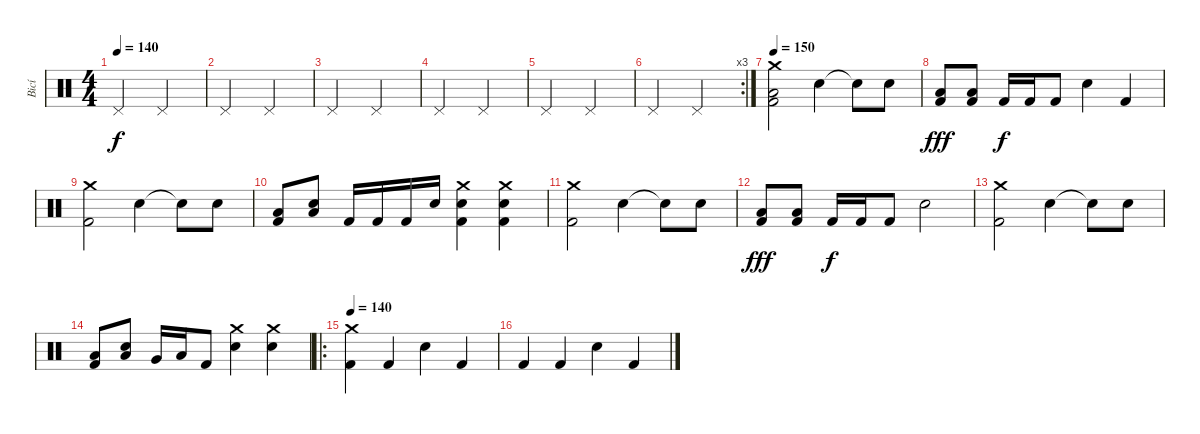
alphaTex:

\track ("Bicí" "Bicí") {instrument percussion}
\staff {score}
\articulation defaults
\ts (4 4)
\tempo 140
\clef neutral
\ks c "Pedal Hi-Hat (hit)".2{dy f} "Pedal Hi-Hat (hit)".2
|
"Pedal Hi-Hat (hit)".2 "Pedal Hi-Hat (hit)".2 |
"Pedal Hi-Hat (hit)".2 "Pedal Hi-Hat (hit)".2 |
"Pedal Hi-Hat (hit)".2 "Pedal Hi-Hat (hit)".2 |
"Pedal Hi-Hat (hit)".2 "Pedal Hi-Hat (hit)".2 |
\rc 3 "Pedal Hi-Hat (hit)".2 "Pedal Hi-Hat (hit)".2
|
\tempo 150
("Crash medium (hit)" "Kick (hit) 2" "Low Floor Tom (hit)").2 "Electric Snare (hit)".4 "Snare (hit)"{t}.8 "Electric Snare (hit)".8 |
("Kick (hit) 2" "Low Floor Tom (hit)").8{dy fff} ("Kick (hit) 2" "Low Floor Tom (hit)").8 "Kick (hit) 2".16{dy f} "Kick (hit) 2".16 "Kick (hit) 2".8 "Electric Snare (hit)".4 "Kick (hit) 2".4 |
("Crash medium (hit)" "Kick (hit) 2").2 "Electric Snare (hit)".4 "Snare (hit)"{t}.8 "Electric Snare (hit)".8 |
("Low Floor Tom (hit)" "Kick (hit) 2").8 ("Low Floor Tom (hit)" "Electric Snare (hit)").8 "Kick (hit) 2".16 "Kick (hit) 2".16 "Kick (hit) 2".16 "Electric Snare (hit)".16 ("Kick (hit) 2" "Crash medium (hit)" "Electric Snare (hit)").4 ("Kick (hit) 2" "Crash medium (hit)" "Electric Snare (hit)").4 |
("Crash medium (hit)" "Kick (hit) 2").2 "Electric Snare (hit)".4 "Snare (hit)"{t}.8 "Electric Snare (hit)".8 |
("Kick (hit) 2" "Low Floor Tom (hit)").8{dy fff} ("Kick (hit) 2" "Low Floor Tom (hit)").8 "Kick (hit) 2".16{dy f} "Kick (hit) 2".16 "Kick (hit) 2".8 "Electric Snare (hit)".2 |
("Crash medium (hit)" "Kick (hit) 2").2 "Electric Snare (hit)".4 "Snare (hit)"{t}.8 "Electric Snare (hit)".8 |
("Low Floor Tom (hit)" "Kick (hit) 2").8 ("Low Floor Tom (hit)" "Electric Snare (hit)").8 "Very Low Tom (hit)".16 "Low Floor Tom (hit)".16 "Kick (hit) 2".8 ("Crash medium (hit)" "Electric Snare (hit)").4 ("Crash medium (hit)" "Electric Snare (hit)").4 |
\ro
\tempo 140
("Crash medium (hit)" "Kick (hit) 2").4 "Kick (hit) 2".4 "Electric Snare (hit)".4 "Kick (hit) 2".4 |
"Kick (hit) 2".4 "Kick (hit) 2".4 "Electric Snare (hit)".4 "Kick (hit) 2".4
